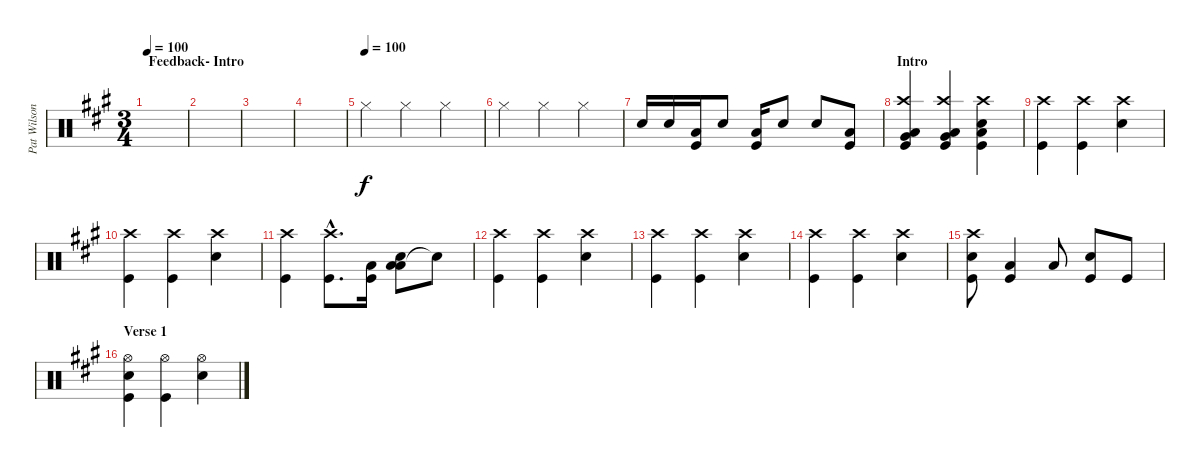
\track ("Pat Wilson" "Pat Wilson") {instrument percussion}
\staff {score}
\articulation defaults
\ts (3 4)
\section ("" "Feedback- Intro")
\tempo 100
\tempo 80
\tempo 100
\clef neutral
\ks a
|
|
|
|
\tempo (100)
"Hi-Hat (closed)".4 "Hi-Hat (closed)".4 "Hi-Hat (closed)".4 |
"Hi-Hat (closed)".4 "Hi-Hat (closed)".4 "Hi-Hat (closed)".4 |
"Snare (hit) 2".16 "Snare (hit) 2".16 ("Low Floor Tom (hit)" "Kick (hit)").16 "Snare (hit) 2".8 ("Low Floor Tom (hit)" "Kick (hit)").16 "Snare (hit) 2".8 "Snare (hit) 2".8 ("Low Floor Tom (hit)" "Kick (hit)").8 |
\section ("" "Intro")
("Crash high (hit)" "Kick (hit)" "Low Floor Tom (hit)" "Very Low Tom (hit)").4 ("Crash high (hit)" "Kick (hit)" "Low Floor Tom (hit)" "Very Low Tom (hit)").4 ("Crash high (hit)" "Snare (hit) 2" "Low Floor Tom (hit)" "Kick (hit)").4 |
("Crash high (hit)" "Kick (hit)").4 ("Crash high (hit)" "Kick (hit)").4 ("Crash high (hit)" "Snare (hit) 2").4 |
("Crash high (hit)" "Kick (hit)").4 ("Crash high (hit)" "Kick (hit)").4 ("Crash high (hit)" "Snare (hit) 2").4 |
("Crash high (hit)" "Kick (hit)").4 ("Crash high (hit)"{hac} "Kick (hit)"{hac}).8{d} ("Kick (hit)" "Low Floor Tom (hit)").16 ("Low Floor Tom (hit)" "Low Tom (hit)" "Snare (hit) 2").8 "Snare (hit)"{t}.8 |
("Crash high (hit)" "Kick (hit)").4 ("Crash high (hit)" "Kick (hit)").4 ("Crash high (hit)" "Snare (hit) 2").4 |
("Crash high (hit)" "Kick (hit)").4 ("Crash high (hit)" "Kick (hit)").4 ("Crash high (hit)" "Snare (hit) 2").4 |
("Crash high (hit)" "Kick (hit)").4 ("Crash high (hit)" "Kick (hit)").4 ("Crash high (hit)" "Snare (hit) 2").4 |
("Crash high (hit)" "Snare (hit) 2" "Kick (hit)").8 ("Low Floor Tom (hit)" "Kick (hit)").4 "Low Tom (hit)".8 ("Snare (hit) 2" "Kick (hit)").8 "Kick (hit)".8 |
\section ("" "Verse 1")
("Hi-Hat (open)" "Kick (hit)" "Snare (hit) 2").4 ("Hi-Hat (open)" "Kick (hit)").4 ("Hi-Hat (open)" "Snare (hit) 2").4
